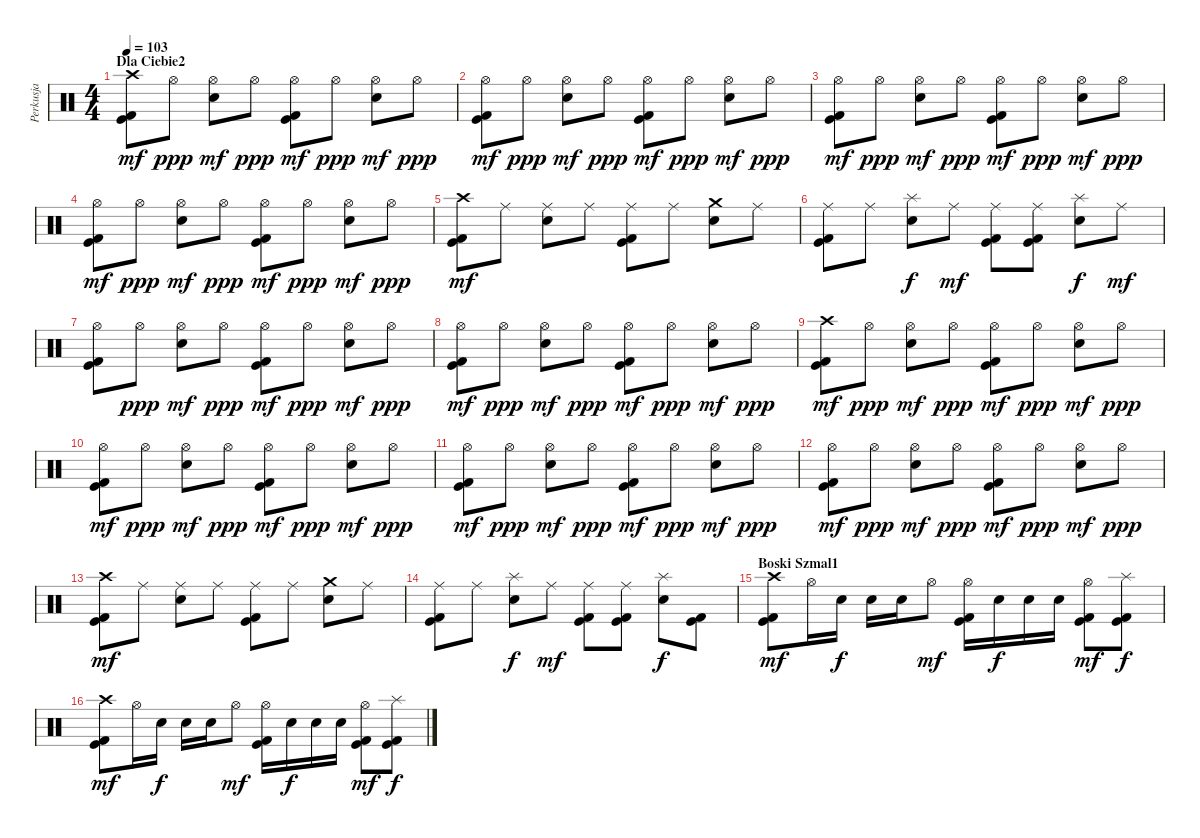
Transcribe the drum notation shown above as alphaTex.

\track ("Perkusja" "Perkusja") {instrument percussion}
\staff {score}
\articulation defaults
\ts (4 4)
\section ("" "Dla Ciebie2")
\tempo 103
\clef neutral
\ks c
("Kick (hit) 2" "Kick (hit)" "Crash high (hit)").8{dy mf} "Hi-Hat (open)".8{dy ppp} ("Snare (hit) 2" "Hi-Hat (open)").8{dy mf} "Hi-Hat (open)".8{dy ppp} ("Kick (hit) 2" "Kick (hit)" "Hi-Hat (open)").8{dy mf} "Hi-Hat (open)".8{dy ppp} ("Snare (hit) 2" "Hi-Hat (open)").8{dy mf} "Hi-Hat (open)".8{dy ppp} |
("Kick (hit) 2" "Kick (hit)" "Hi-Hat (open)").8{dy mf} "Hi-Hat (open)".8{dy ppp} ("Snare (hit) 2" "Hi-Hat (open)").8{dy mf} "Hi-Hat (open)".8{dy ppp} ("Kick (hit) 2" "Kick (hit)" "Hi-Hat (open)").8{dy mf} "Hi-Hat (open)".8{dy ppp} ("Snare (hit) 2" "Hi-Hat (open)").8{dy mf} "Hi-Hat (open)".8{dy ppp} |
("Kick (hit) 2" "Kick (hit)" "Hi-Hat (open)").8{dy mf} "Hi-Hat (open)".8{dy ppp} ("Snare (hit) 2" "Hi-Hat (open)").8{dy mf} "Hi-Hat (open)".8{dy ppp} ("Kick (hit) 2" "Kick (hit)" "Hi-Hat (open)").8{dy mf} "Hi-Hat (open)".8{dy ppp} ("Snare (hit) 2" "Hi-Hat (open)").8{dy mf} "Hi-Hat (open)".8{dy ppp} |
("Kick (hit) 2" "Kick (hit)" "Hi-Hat (open)").8{dy mf} "Hi-Hat (open)".8{dy ppp} ("Snare (hit) 2" "Hi-Hat (open)").8{dy mf} "Hi-Hat (open)".8{dy ppp} ("Kick (hit) 2" "Kick (hit)" "Hi-Hat (open)").8{dy mf} "Hi-Hat (open)".8{dy ppp} ("Snare (hit) 2" "Hi-Hat (open)").8{dy mf} "Hi-Hat (open)".8{dy ppp} |
("Kick (hit) 2" "Kick (hit)" "Crash high (hit)").8{dy mf} "Ride (middle)".8 ("Snare (hit) 2" "Ride (middle)").8 "Ride (middle)".8 ("Kick (hit) 2" "Kick (hit)" "Ride (middle)").8 "Ride (middle)".8 ("Snare (hit) 2" "Crash medium (hit)").8 "Ride (middle)".8 |
("Kick (hit) 2" "Kick (hit)" "Ride (middle)").8 "Ride (middle)".8 ("Snare (hit) 2" "Splash (hit)").8{dy f} "Ride (middle)".8{dy mf} ("Kick (hit) 2" "Kick (hit)" "Ride (middle)").8 ("Kick (hit) 2" "Kick (hit)" "Ride (middle)").8 ("Snare (hit) 2" "Splash (hit)").8{dy f} "Ride (middle)".8{dy mf} |
("Kick (hit) 2" "Kick (hit)" "Hi-Hat (open)").8 "Hi-Hat (open)".8{dy ppp} ("Snare (hit) 2" "Hi-Hat (open)").8{dy mf} "Hi-Hat (open)".8{dy ppp} ("Kick (hit) 2" "Kick (hit)" "Hi-Hat (open)").8{dy mf} "Hi-Hat (open)".8{dy ppp} ("Snare (hit) 2" "Hi-Hat (open)").8{dy mf} "Hi-Hat (open)".8{dy ppp} |
("Kick (hit) 2" "Kick (hit)" "Hi-Hat (open)").8{dy mf} "Hi-Hat (open)".8{dy ppp} ("Snare (hit) 2" "Hi-Hat (open)").8{dy mf} "Hi-Hat (open)".8{dy ppp} ("Kick (hit) 2" "Kick (hit)" "Hi-Hat (open)").8{dy mf} "Hi-Hat (open)".8{dy ppp} ("Snare (hit) 2" "Hi-Hat (open)").8{dy mf} "Hi-Hat (open)".8{dy ppp} |
("Kick (hit) 2" "Kick (hit)" "Crash high (hit)").8{dy mf} "Hi-Hat (open)".8{dy ppp} ("Snare (hit) 2" "Hi-Hat (open)").8{dy mf} "Hi-Hat (open)".8{dy ppp} ("Kick (hit) 2" "Kick (hit)" "Hi-Hat (open)").8{dy mf} "Hi-Hat (open)".8{dy ppp} ("Snare (hit) 2" "Hi-Hat (open)").8{dy mf} "Hi-Hat (open)".8{dy ppp} |
("Kick (hit) 2" "Kick (hit)" "Hi-Hat (open)").8{dy mf} "Hi-Hat (open)".8{dy ppp} ("Snare (hit) 2" "Hi-Hat (open)").8{dy mf} "Hi-Hat (open)".8{dy ppp} ("Kick (hit) 2" "Kick (hit)" "Hi-Hat (open)").8{dy mf} "Hi-Hat (open)".8{dy ppp} ("Snare (hit) 2" "Hi-Hat (open)").8{dy mf} "Hi-Hat (open)".8{dy ppp} |
("Kick (hit) 2" "Kick (hit)" "Hi-Hat (open)").8{dy mf} "Hi-Hat (open)".8{dy ppp} ("Snare (hit) 2" "Hi-Hat (open)").8{dy mf} "Hi-Hat (open)".8{dy ppp} ("Kick (hit) 2" "Kick (hit)" "Hi-Hat (open)").8{dy mf} "Hi-Hat (open)".8{dy ppp} ("Snare (hit) 2" "Hi-Hat (open)").8{dy mf} "Hi-Hat (open)".8{dy ppp} |
("Kick (hit) 2" "Kick (hit)" "Hi-Hat (open)").8{dy mf} "Hi-Hat (open)".8{dy ppp} ("Snare (hit) 2" "Hi-Hat (open)").8{dy mf} "Hi-Hat (open)".8{dy ppp} ("Kick (hit) 2" "Kick (hit)" "Hi-Hat (open)").8{dy mf} "Hi-Hat (open)".8{dy ppp} ("Snare (hit) 2" "Hi-Hat (open)").8{dy mf} "Hi-Hat (open)".8{dy ppp} |
("Kick (hit) 2" "Kick (hit)" "Crash high (hit)").8{dy mf} "Ride (middle)".8 ("Snare (hit) 2" "Ride (middle)").8 "Ride (middle)".8 ("Kick (hit) 2" "Kick (hit)" "Ride (middle)").8 "Ride (middle)".8 ("Snare (hit) 2" "Crash medium (hit)").8 "Ride (middle)".8 |
("Kick (hit) 2" "Kick (hit)" "Ride (middle)").8 "Ride (middle)".8 ("Snare (hit) 2" "Splash (hit)").8{dy f} "Ride (middle)".8{dy mf} ("Kick (hit) 2" "Kick (hit)" "Ride (middle)").8 ("Kick (hit) 2" "Kick (hit)" "Ride (middle)").8 ("Snare (hit) 2" "Splash (hit)").8{dy f} ("Kick (hit) 2" "Kick (hit)").8 |
\section ("" "Boski Szmal1")
("Kick (hit) 2" "Kick (hit)" "Crash high (hit)").8{dy mf} "Hi-Hat (open)".16 "Snare (hit) 2".16{dy f} "Snare (hit) 2".16 "Snare (hit) 2".16 "Hi-Hat (open)".8{dy mf} ("Kick (hit) 2" "Kick (hit)" "Hi-Hat (open)").16 "Snare (hit) 2".16{dy f} "Snare (hit) 2".16 "Snare (hit) 2".16 ("Kick (hit) 2" "Kick (hit)" "Hi-Hat (open)").8{dy mf} ("Kick (hit)" "Kick (hit) 2" "Splash (hit)").8{dy f} |
("Kick (hit) 2" "Kick (hit)" "Crash high (hit)").8{dy mf} "Hi-Hat (open)".16 "Snare (hit) 2".16{dy f} "Snare (hit) 2".16 "Snare (hit) 2".16 "Hi-Hat (open)".8{dy mf} ("Kick (hit) 2" "Kick (hit)" "Hi-Hat (open)").16 "Snare (hit) 2".16{dy f} "Snare (hit) 2".16 "Snare (hit) 2".16 ("Kick (hit) 2" "Kick (hit)" "Hi-Hat (open)").8{dy mf} ("Kick (hit)" "Kick (hit) 2" "Splash (hit)").8{dy f}
